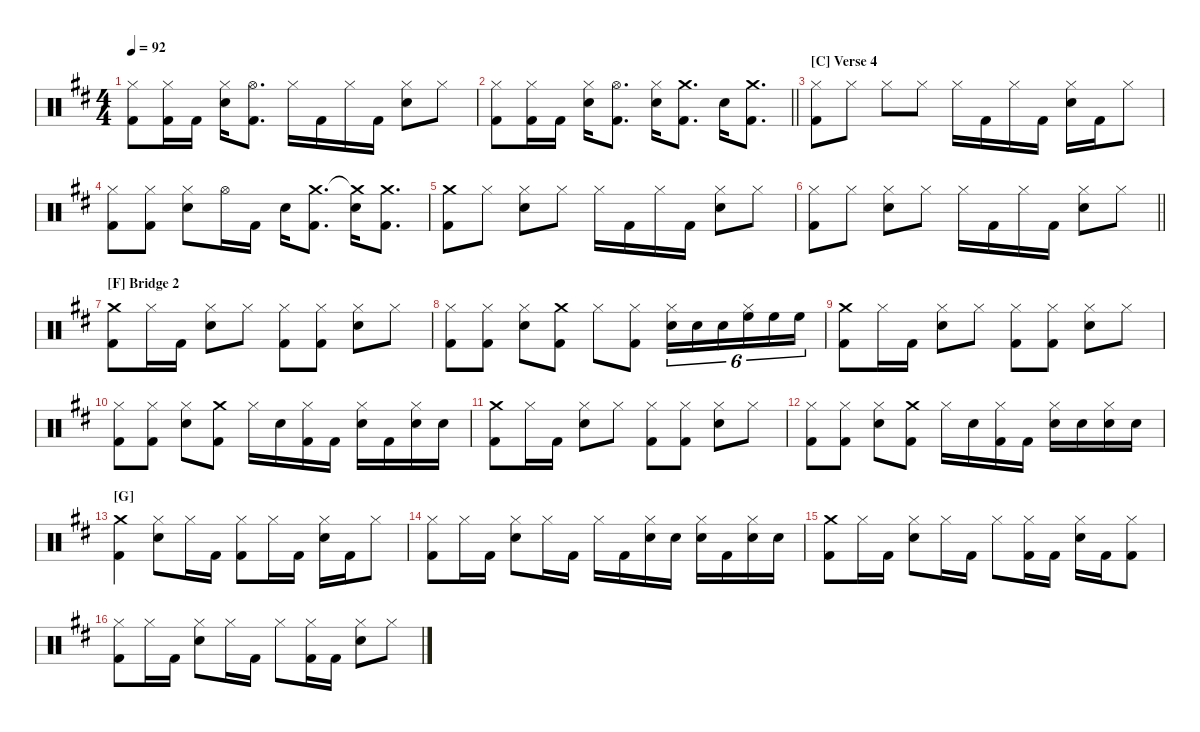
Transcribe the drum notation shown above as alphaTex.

\hideDynamics
\bracketExtendMode nobrackets
\singleTrackTrackNamePolicy hidden
\multiTrackTrackNamePolicy hidden
\firstSystemTrackNameMode fullname
\firstSystemTrackNameOrientation horizontal
\otherSystemsTrackNameOrientation horizontal
\track ("Drumkit" "Drums") {instrument percussion}
\staff {score}
\articulation defaults
\ts (4 4)
\tempo 92
\clef neutral
\ks d
("Hi-Hat (closed)"{acc forcenatural} "Kick (hit) 2"{acc forcenatural}).8{dy f beam Down} ("Hi-Hat (closed)"{acc forcenatural} "Kick (hit) 2"{acc forcenatural}).16{beam Down} "Kick (hit) 2"{acc forcenatural}.16{beam Down} ("Hi-Hat (closed)"{acc forcenatural} "Snare (hit) 2"{acc forcenatural}).16{beam Down} ("Hi-Hat (open)"{acc forcenatural} "Kick (hit) 2"{acc forcenatural}).8{d beam Down} "Hi-Hat (closed)"{acc forcenatural}.16{beam Down} "Kick (hit) 2"{acc forcenatural}.16{beam Down} "Hi-Hat (closed)"{acc forcenatural}.16{beam Down} "Kick (hit) 2"{acc forcenatural}.16{beam Down} ("Hi-Hat (closed)"{acc forcenatural} "Snare (hit) 2"{acc forcenatural}).8{beam Down} "Hi-Hat (closed)"{acc forcenatural}.8{beam Down} |
\barLineRight lightlight
("Hi-Hat (closed)"{acc forcenatural} "Kick (hit) 2"{acc forcenatural}).8{beam Down} ("Hi-Hat (closed)"{acc forcenatural} "Kick (hit) 2"{acc forcenatural}).16{beam Down} "Kick (hit) 2"{acc forcenatural}.16{beam Down} ("Hi-Hat (closed)"{acc forcenatural} "Snare (hit) 2"{acc forcenatural}).16{beam Down} ("Hi-Hat (open)"{acc forcenatural} "Kick (hit) 2"{acc forcenatural}).8{d beam Down} ("Hi-Hat (closed)"{acc forcenatural} "Snare (hit) 2"{acc forcenatural}).16{beam Down} ("Crash medium (hit)"{acc forcenatural} "Kick (hit) 2"{acc forcenatural}).8{d beam Down} "Snare (hit) 2"{acc forcenatural}.16{beam Down} ("Crash medium (hit)"{acc forcenatural} "Kick (hit) 2"{acc forcenatural}).8{d beam Down} |
\section ("C" "Verse 4")
("Hi-Hat (closed)"{acc forcenatural} "Kick (hit) 2"{acc forcenatural}).8{beam Down} "Hi-Hat (closed)"{acc forcenatural}.8{beam Down} "Hi-Hat (closed)"{acc forcenatural}.8{beam Down} "Hi-Hat (closed)"{acc forcenatural}.8{beam Down} "Hi-Hat (closed)"{acc forcenatural}.16{beam Down} "Kick (hit) 2"{acc forcenatural}.16{beam Down} "Hi-Hat (closed)"{acc forcenatural}.16{beam Down} "Kick (hit) 2"{acc forcenatural}.16{beam Down} ("Hi-Hat (closed)"{acc forcenatural} "Snare (hit) 2"{acc forcenatural}).16{beam Down} "Kick (hit) 2"{acc forcenatural}.16{beam Down} "Hi-Hat (closed)"{acc forcenatural}.8{beam Down} |
("Hi-Hat (closed)"{acc forcenatural} "Kick (hit) 2"{acc forcenatural}).8{beam Down} ("Hi-Hat (closed)"{acc forcenatural} "Kick (hit) 2"{acc forcenatural}).8{beam Down} ("Hi-Hat (closed)"{acc forcenatural} "Snare (hit) 2"{acc forcenatural}).8{beam Down} "Hi-Hat (open)"{acc forcenatural}.16{beam Down} "Kick (hit) 2"{acc forcenatural}.16{beam Down} "Snare (hit) 2"{acc forcenatural}.16{beam Down} ("Crash medium (hit)"{acc forcenatural} "Kick (hit) 2"{acc forcenatural}).8{d beam Down} ("Crash medium (hit)"{t acc forcenatural} "Snare (hit) 2"{acc forcenatural}).16{beam Down} ("Crash medium (hit)"{acc forcenatural} "Kick (hit) 2"{acc forcenatural}).8{d beam Down} |
("Crash medium (hit)"{acc forcenatural} "Kick (hit) 2"{acc forcenatural}).8{beam Down} "Hi-Hat (closed)"{acc forcenatural}.8{beam Down} ("Hi-Hat (closed)"{acc forcenatural} "Snare (hit) 2"{acc forcenatural}).8{beam Down} "Hi-Hat (closed)"{acc forcenatural}.8{beam Down} "Hi-Hat (closed)"{acc forcenatural}.16{beam Down} "Kick (hit) 2"{acc forcenatural}.16{beam Down} "Hi-Hat (closed)"{acc forcenatural}.16{beam Down} "Kick (hit) 2"{acc forcenatural}.16{beam Down} ("Hi-Hat (closed)"{acc forcenatural} "Snare (hit) 2"{acc forcenatural}).8{beam Down} "Hi-Hat (closed)"{acc forcenatural}.8{beam Down} |
\barLineRight lightlight
("Hi-Hat (closed)"{acc forcenatural} "Kick (hit) 2"{acc forcenatural}).8{beam Down} "Hi-Hat (closed)"{acc forcenatural}.8{beam Down} ("Hi-Hat (closed)"{acc forcenatural} "Snare (hit) 2"{acc forcenatural}).8{beam Down} "Hi-Hat (closed)"{acc forcenatural}.8{beam Down} "Hi-Hat (closed)"{acc forcenatural}.16{beam Down} "Kick (hit) 2"{acc forcenatural}.16{beam Down} "Hi-Hat (closed)"{acc forcenatural}.16{beam Down} "Kick (hit) 2"{acc forcenatural}.16{beam Down} ("Hi-Hat (closed)"{acc forcenatural} "Snare (hit) 2"{acc forcenatural}).8{beam Down} "Hi-Hat (closed)"{acc forcenatural}.8{beam Down} |
\section ("F" "Bridge 2")
("Crash medium (hit)"{acc forcenatural} "Kick (hit) 2"{acc forcenatural}).8{beam Down} "Hi-Hat (closed)"{acc forcenatural}.16{beam Down} "Kick (hit) 2"{acc forcenatural}.16{beam Down} ("Hi-Hat (closed)"{acc forcenatural} "Snare (hit) 2"{acc forcenatural}).8{beam Down} "Hi-Hat (closed)"{acc forcenatural}.8{beam Down} ("Hi-Hat (closed)"{acc forcenatural} "Kick (hit) 2"{acc forcenatural}).8{beam Down} ("Hi-Hat (closed)"{acc forcenatural} "Kick (hit) 2"{acc forcenatural}).8{beam Down} ("Hi-Hat (closed)"{acc forcenatural} "Snare (hit) 2"{acc forcenatural}).8{beam Down} "Hi-Hat (closed)"{acc forcenatural}.8{beam Down} |
("Hi-Hat (closed)"{acc forcenatural} "Kick (hit) 2"{acc forcenatural}).8{beam Down} ("Hi-Hat (closed)"{acc forcenatural} "Kick (hit) 2"{acc forcenatural}).8{beam Down} ("Hi-Hat (closed)"{acc forcenatural} "Snare (hit) 2"{acc forcenatural}).8{beam Down} ("Crash medium (hit)"{acc forcenatural} "Kick (hit) 2"{acc forcenatural}).8{beam Down} "Hi-Hat (closed)"{acc forcenatural}.8{beam Down} ("Hi-Hat (closed)"{acc forcenatural} "Kick (hit) 2"{acc forcenatural}).8{beam Down} ("Hi-Hat (closed)"{acc forcenatural} "Snare (hit) 2"{acc forcenatural}).16{tu (6 4) beam Down} "Snare (hit) 2"{acc forcenatural}.16{tu (6 4) beam Down} "Snare (hit) 2"{acc forcenatural}.16{tu (6 4) beam Down} ("Hi-Hat (closed)"{acc forcenatural} "High Floor Tom (hit)"{acc forcenatural}).16{tu (6 4) beam Down} "High Floor Tom (hit)"{acc forcenatural}.16{tu (6 4) beam Down} "High Floor Tom (hit)"{acc forcenatural}.16{tu (6 4) beam Down} |
("Crash medium (hit)"{acc forcenatural} "Kick (hit) 2"{acc forcenatural}).8{beam Down} "Hi-Hat (closed)"{acc forcenatural}.16{beam Down} "Kick (hit) 2"{acc forcenatural}.16{beam Down} ("Hi-Hat (closed)"{acc forcenatural} "Snare (hit) 2"{acc forcenatural}).8{beam Down} "Hi-Hat (closed)"{acc forcenatural}.8{beam Down} ("Hi-Hat (closed)"{acc forcenatural} "Kick (hit) 2"{acc forcenatural}).8{beam Down} ("Hi-Hat (closed)"{acc forcenatural} "Kick (hit) 2"{acc forcenatural}).8{beam Down} ("Hi-Hat (closed)"{acc forcenatural} "Snare (hit) 2"{acc forcenatural}).8{beam Down} "Hi-Hat (closed)"{acc forcenatural}.8{beam Down} |
("Hi-Hat (closed)"{acc forcenatural} "Kick (hit) 2"{acc forcenatural}).8{beam Down} ("Hi-Hat (closed)"{acc forcenatural} "Kick (hit) 2"{acc forcenatural}).8{beam Down} ("Hi-Hat (closed)"{acc forcenatural} "Snare (hit) 2"{acc forcenatural}).8{beam Down} ("Crash medium (hit)"{acc forcenatural} "Kick (hit) 2"{acc forcenatural}).8{beam Down} "Hi-Hat (closed)"{acc forcenatural}.16{beam Down} "Snare (hit) 2"{acc forcenatural}.16{beam Down} ("Hi-Hat (closed)"{acc forcenatural} "Kick (hit) 2"{acc forcenatural}).16{beam Down} "Kick (hit) 2"{acc forcenatural}.16{beam Down} ("Hi-Hat (closed)"{acc forcenatural} "Snare (hit) 2"{acc forcenatural}).16{beam Down} "Kick (hit) 2"{acc forcenatural}.16{beam Down} ("Hi-Hat (closed)"{acc forcenatural} "Snare (hit) 2"{acc forcenatural}).16{beam Down} "Snare (hit) 2"{acc forcenatural}.16{beam Down} |
("Crash medium (hit)"{acc forcenatural} "Kick (hit) 2"{acc forcenatural}).8{beam Down} "Hi-Hat (closed)"{acc forcenatural}.16{beam Down} "Kick (hit) 2"{acc forcenatural}.16{beam Down} ("Hi-Hat (closed)"{acc forcenatural} "Snare (hit) 2"{acc forcenatural}).8{beam Down} "Hi-Hat (closed)"{acc forcenatural}.8{beam Down} ("Hi-Hat (closed)"{acc forcenatural} "Kick (hit) 2"{acc forcenatural}).8{beam Down} ("Hi-Hat (closed)"{acc forcenatural} "Kick (hit) 2"{acc forcenatural}).8{beam Down} ("Hi-Hat (closed)"{acc forcenatural} "Snare (hit) 2"{acc forcenatural}).8{beam Down} "Hi-Hat (closed)"{acc forcenatural}.8{beam Down} |
("Hi-Hat (closed)"{acc forcenatural} "Kick (hit) 2"{acc forcenatural}).8{beam Down} ("Hi-Hat (closed)"{acc forcenatural} "Kick (hit) 2"{acc forcenatural}).8{beam Down} ("Hi-Hat (closed)"{acc forcenatural} "Snare (hit) 2"{acc forcenatural}).8{beam Down} ("Crash medium (hit)"{acc forcenatural} "Kick (hit) 2"{acc forcenatural}).8{beam Down} "Hi-Hat (closed)"{acc forcenatural}.16{beam Down} "Snare (hit) 2"{acc forcenatural}.16{beam Down} ("Hi-Hat (closed)"{acc forcenatural} "Kick (hit) 2"{acc forcenatural}).16{beam Down} "Kick (hit) 2"{acc forcenatural}.16{beam Down} ("Hi-Hat (closed)"{acc forcenatural} "Snare (hit) 2"{acc forcenatural}).16{beam Down} "Snare (hit) 2"{acc forcenatural}.16{beam Down} ("Hi-Hat (closed)"{acc forcenatural} "Snare (hit) 2"{acc forcenatural}).16{beam Down} "Snare (hit) 2"{acc forcenatural}.16{beam Down} |
\section ("G" "")
("Crash medium (hit)"{acc forcenatural} "Kick (hit) 2"{acc forcenatural}).4{beam Down} ("Hi-Hat (closed)"{acc forcenatural} "Snare (hit) 2"{acc forcenatural}).8{beam Down} "Hi-Hat (closed)"{acc forcenatural}.16{beam Down} "Kick (hit) 2"{acc forcenatural}.16{beam Down} ("Hi-Hat (closed)"{acc forcenatural} "Kick (hit) 2"{acc forcenatural}).8{beam Down} "Hi-Hat (closed)"{acc forcenatural}.16{beam Down} "Kick (hit) 2"{acc forcenatural}.16{beam Down} ("Hi-Hat (closed)"{acc forcenatural} "Snare (hit) 2"{acc forcenatural}).16{beam Down} "Kick (hit) 2"{acc forcenatural}.16{beam Down} "Hi-Hat (closed)"{acc forcenatural}.8{beam Down} |
("Hi-Hat (closed)"{acc forcenatural} "Kick (hit) 2"{acc forcenatural}).8{beam Down} "Hi-Hat (closed)"{acc forcenatural}.16{beam Down} "Kick (hit) 2"{acc forcenatural}.16{beam Down} ("Hi-Hat (closed)"{acc forcenatural} "Snare (hit) 2"{acc forcenatural}).8{beam Down} "Hi-Hat (closed)"{acc forcenatural}.16{beam Down} "Kick (hit) 2"{acc forcenatural}.16{beam Down} "Hi-Hat (closed)"{acc forcenatural}.16{beam Down} "Kick (hit) 2"{acc forcenatural}.16{beam Down} ("Hi-Hat (closed)"{acc forcenatural} "Snare (hit) 2"{acc forcenatural}).16{beam Down} "Snare (hit) 2"{acc forcenatural}.16{beam Down} ("Hi-Hat (closed)"{acc forcenatural} "Snare (hit) 2"{acc forcenatural}).16{beam Down} "Kick (hit) 2"{acc forcenatural}.16{beam Down} ("Hi-Hat (closed)"{acc forcenatural} "Snare (hit) 2"{acc forcenatural}).16{beam Down} "Snare (hit) 2"{acc forcenatural}.16{beam Down} |
("Crash medium (hit)"{acc forcenatural} "Kick (hit) 2"{acc forcenatural}).8{beam Down} "Hi-Hat (closed)"{acc forcenatural}.16{beam Down} "Kick (hit) 2"{acc forcenatural}.16{beam Down} ("Hi-Hat (closed)"{acc forcenatural} "Snare (hit) 2"{acc forcenatural}).8{beam Down} "Hi-Hat (closed)"{acc forcenatural}.16{beam Down} "Kick (hit) 2"{acc forcenatural}.16{beam Down} "Hi-Hat (closed)"{acc forcenatural}.8{beam Down} ("Hi-Hat (closed)"{acc forcenatural} "Kick (hit) 2"{acc forcenatural}).16{beam Down} "Kick (hit) 2"{acc forcenatural}.16{beam Down} ("Hi-Hat (closed)"{acc forcenatural} "Snare (hit) 2"{acc forcenatural}).16{beam Down} "Kick (hit) 2"{acc forcenatural}.16{beam Down} ("Hi-Hat (closed)"{acc forcenatural} "Kick (hit) 2"{acc forcenatural}).8{beam Down} |
("Hi-Hat (closed)"{acc forcenatural} "Kick (hit) 2"{acc forcenatural}).8{beam Down} "Hi-Hat (closed)"{acc forcenatural}.16{beam Down} "Kick (hit) 2"{acc forcenatural}.16{beam Down} ("Hi-Hat (closed)"{acc forcenatural} "Snare (hit) 2"{acc forcenatural}).8{beam Down} "Hi-Hat (closed)"{acc forcenatural}.16{beam Down} "Kick (hit) 2"{acc forcenatural}.16{beam Down} "Hi-Hat (closed)"{acc forcenatural}.8{beam Down} ("Hi-Hat (closed)"{acc forcenatural} "Kick (hit) 2"{acc forcenatural}).16{beam Down} "Kick (hit) 2"{acc forcenatural}.16{beam Down} ("Hi-Hat (closed)"{acc forcenatural} "Snare (hit) 2"{acc forcenatural}).8{beam Down} "Hi-Hat (closed)"{acc forcenatural}.8{beam Down}
